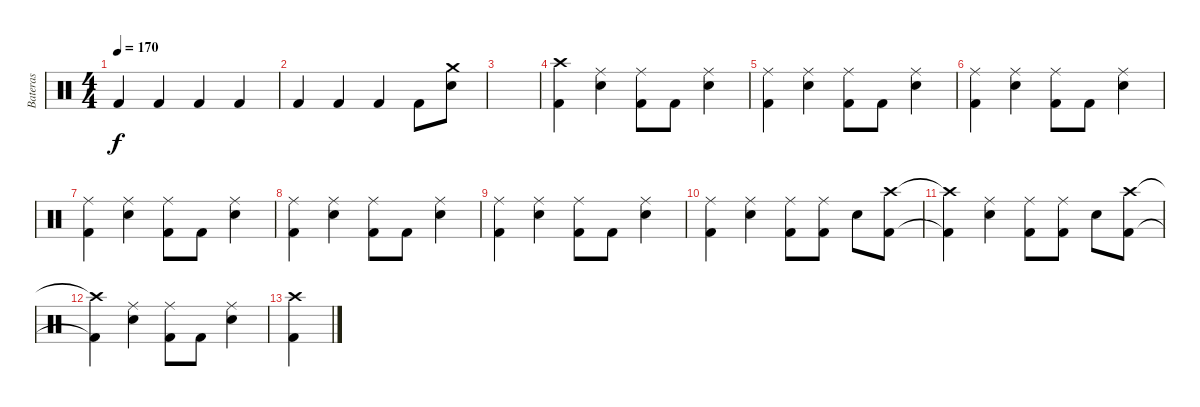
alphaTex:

\track ("Bateras" "Bateras") {instrument percussion}
\staff {score}
\articulation defaults
\ts (4 4)
\tempo 170
\clef neutral
\ks c "Kick (hit) 2".4{dy f} "Kick (hit) 2".4 "Kick (hit) 2".4 "Kick (hit) 2".4
|
"Kick (hit) 2".4 "Kick (hit) 2".4 "Kick (hit) 2".4 "Kick (hit) 2".8 ("Crash medium (hit)" "Snare (hit) 2").8 |
|
("Crash high (hit)" "Kick (hit) 2").4 ("Ride (middle)" "Snare (hit) 2").4 ("Ride (middle)" "Kick (hit) 2").8 "Kick (hit) 2".8 ("Ride (middle)" "Snare (hit) 2").4 |
("Ride (middle)" "Kick (hit) 2").4 ("Ride (middle)" "Snare (hit) 2").4 ("Ride (middle)" "Kick (hit) 2").8 "Kick (hit) 2".8 ("Ride (middle)" "Snare (hit) 2").4 |
("Ride (middle)" "Kick (hit) 2").4 ("Ride (middle)" "Snare (hit) 2").4 ("Ride (middle)" "Kick (hit) 2").8 "Kick (hit) 2".8 ("Ride (middle)" "Snare (hit) 2").4 |
("Ride (middle)" "Kick (hit) 2").4 ("Ride (middle)" "Snare (hit) 2").4 ("Ride (middle)" "Kick (hit) 2").8 "Kick (hit) 2".8 ("Ride (middle)" "Snare (hit) 2").4 |
("Ride (middle)" "Kick (hit) 2").4 ("Ride (middle)" "Snare (hit) 2").4 ("Ride (middle)" "Kick (hit) 2").8 "Kick (hit) 2".8 ("Ride (middle)" "Snare (hit) 2").4 |
("Ride (middle)" "Kick (hit) 2").4 ("Ride (middle)" "Snare (hit) 2").4 ("Ride (middle)" "Kick (hit) 2").8 "Kick (hit) 2".8 ("Ride (middle)" "Snare (hit) 2").4 |
("Ride (middle)" "Kick (hit) 2").4 ("Ride (middle)" "Snare (hit) 2").4 ("Ride (middle)" "Kick (hit) 2").8 ("Ride (middle)" "Kick (hit) 2").8 "Snare (hit) 2".8 ("Crash high (hit)" "Kick (hit) 2").8 |
("Crash high (hit)"{t} "Kick (hit) 2"{t}).4 ("Ride (middle)" "Snare (hit) 2").4 ("Ride (middle)" "Kick (hit) 2").8 ("Ride (middle)" "Kick (hit) 2").8 "Snare (hit) 2".8 ("Crash high (hit)" "Kick (hit) 2").8 |
("Crash high (hit)"{t} "Kick (hit) 2"{t}).4 ("Ride (middle)" "Snare (hit) 2").4 ("Ride (middle)" "Kick (hit) 2").8 "Kick (hit) 2".8 ("Ride (middle)" "Snare (hit) 2").4 |
("Crash high (hit)" "Kick (hit) 2").4
